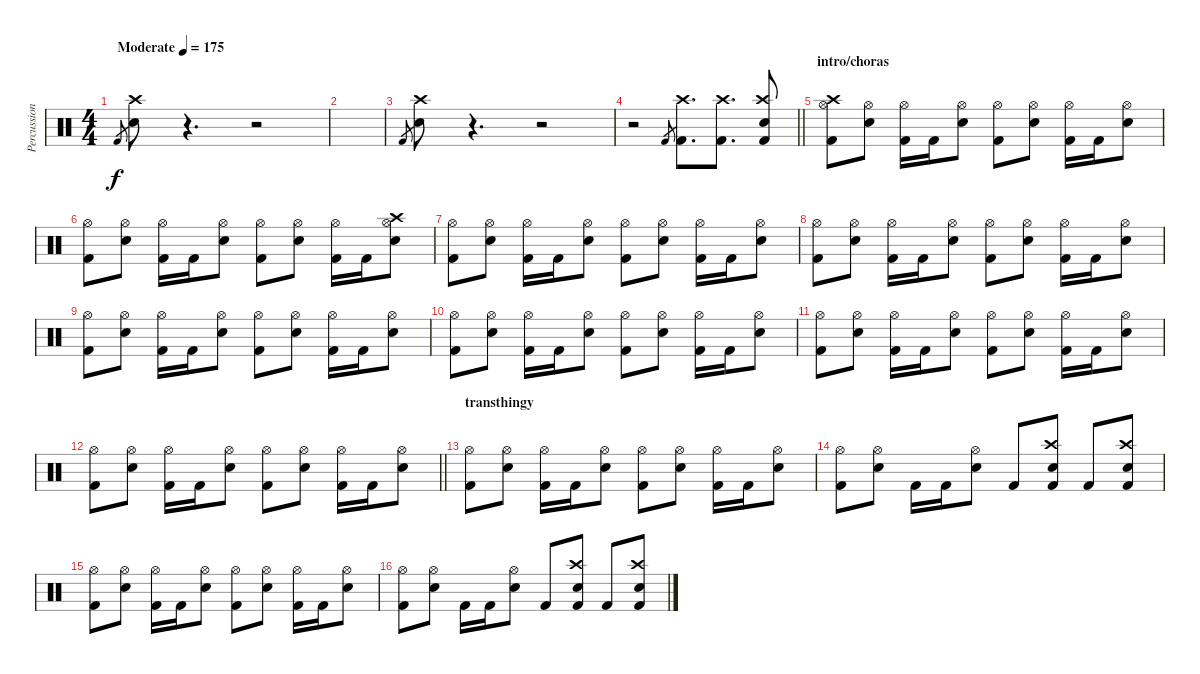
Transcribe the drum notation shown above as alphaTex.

\track ("Percussion" "Percussion") {instrument percussion}
\staff {score}
\articulation defaults
\ts (4 4)
\tempo (175 "Moderate")
\clef neutral
\ks c "Kick (hit) 2".8{gr dy f}
("Crash high (hit)" "Electric Snare (hit)").8 r.4{d} r.2 |
|
"Kick (hit) 2".8{gr} ("Crash high (hit)" "Electric Snare (hit)").8 r.4{d} r.2 |
\barLineRight lightlight
r.2 "Kick (hit) 2".8{gr} ("Crash high (hit)" "Kick (hit) 2").8{d} ("Crash high (hit)" "Kick (hit) 2").8{d} ("Crash high (hit)" "Electric Snare (hit)" "Kick (hit) 2").8 |
\section ("" "intro/choras")
("Crash high (hit)" "Hi-Hat (open)" "Kick (hit) 2").8 ("Hi-Hat (open)" "Electric Snare (hit)").8 ("Hi-Hat (open)" "Kick (hit) 2").16 "Kick (hit) 2".16 ("Hi-Hat (open)" "Electric Snare (hit)").8 ("Hi-Hat (open)" "Kick (hit) 2").8 ("Hi-Hat (open)" "Electric Snare (hit)").8 ("Hi-Hat (open)" "Kick (hit) 2").16 "Kick (hit) 2".16 ("Hi-Hat (open)" "Electric Snare (hit)").8 |
("Hi-Hat (open)" "Kick (hit) 2").8 ("Hi-Hat (open)" "Electric Snare (hit)").8 ("Hi-Hat (open)" "Kick (hit) 2").16 "Kick (hit) 2".16 ("Hi-Hat (open)" "Electric Snare (hit)").8 ("Hi-Hat (open)" "Kick (hit) 2").8 ("Hi-Hat (open)" "Electric Snare (hit)").8 ("Hi-Hat (open)" "Kick (hit) 2").16 "Kick (hit) 2".16 ("Crash high (hit)" "Hi-Hat (open)" "Electric Snare (hit)").8 |
("Hi-Hat (open)" "Kick (hit) 2").8 ("Hi-Hat (open)" "Electric Snare (hit)").8 ("Hi-Hat (open)" "Kick (hit) 2").16 "Kick (hit) 2".16 ("Hi-Hat (open)" "Electric Snare (hit)").8 ("Hi-Hat (open)" "Kick (hit) 2").8 ("Hi-Hat (open)" "Electric Snare (hit)").8 ("Hi-Hat (open)" "Kick (hit) 2").16 "Kick (hit) 2".16 ("Hi-Hat (open)" "Electric Snare (hit)").8 |
("Hi-Hat (open)" "Kick (hit) 2").8 ("Hi-Hat (open)" "Electric Snare (hit)").8 ("Hi-Hat (open)" "Kick (hit) 2").16 "Kick (hit) 2".16 ("Hi-Hat (open)" "Electric Snare (hit)").8 ("Hi-Hat (open)" "Kick (hit) 2").8 ("Hi-Hat (open)" "Electric Snare (hit)").8 ("Hi-Hat (open)" "Kick (hit) 2").16 "Kick (hit) 2".16 ("Hi-Hat (open)" "Electric Snare (hit)").8 |
("Hi-Hat (open)" "Kick (hit) 2").8 ("Hi-Hat (open)" "Electric Snare (hit)").8 ("Hi-Hat (open)" "Kick (hit) 2").16 "Kick (hit) 2".16 ("Hi-Hat (open)" "Electric Snare (hit)").8 ("Hi-Hat (open)" "Kick (hit) 2").8 ("Hi-Hat (open)" "Electric Snare (hit)").8 ("Hi-Hat (open)" "Kick (hit) 2").16 "Kick (hit) 2".16 ("Hi-Hat (open)" "Electric Snare (hit)").8 |
("Hi-Hat (open)" "Kick (hit) 2").8 ("Hi-Hat (open)" "Electric Snare (hit)").8 ("Hi-Hat (open)" "Kick (hit) 2").16 "Kick (hit) 2".16 ("Hi-Hat (open)" "Electric Snare (hit)").8 ("Hi-Hat (open)" "Kick (hit) 2").8 ("Hi-Hat (open)" "Electric Snare (hit)").8 ("Hi-Hat (open)" "Kick (hit) 2").16 "Kick (hit) 2".16 ("Hi-Hat (open)" "Electric Snare (hit)").8 |
("Hi-Hat (open)" "Kick (hit) 2").8 ("Hi-Hat (open)" "Electric Snare (hit)").8 ("Hi-Hat (open)" "Kick (hit) 2").16 "Kick (hit) 2".16 ("Hi-Hat (open)" "Electric Snare (hit)").8 ("Hi-Hat (open)" "Kick (hit) 2").8 ("Hi-Hat (open)" "Electric Snare (hit)").8 ("Hi-Hat (open)" "Kick (hit) 2").16 "Kick (hit) 2".16 ("Hi-Hat (open)" "Electric Snare (hit)").8 |
\barLineRight lightlight
("Hi-Hat (open)" "Kick (hit) 2").8 ("Hi-Hat (open)" "Electric Snare (hit)").8 ("Hi-Hat (open)" "Kick (hit) 2").16 "Kick (hit) 2".16 ("Hi-Hat (open)" "Electric Snare (hit)").8 ("Hi-Hat (open)" "Kick (hit) 2").8 ("Hi-Hat (open)" "Electric Snare (hit)").8 ("Hi-Hat (open)" "Kick (hit) 2").16 "Kick (hit) 2".16 ("Hi-Hat (open)" "Electric Snare (hit)").8 |
\section ("" "transthingy")
("Hi-Hat (open)" "Kick (hit) 2").8 ("Hi-Hat (open)" "Electric Snare (hit)").8 ("Hi-Hat (open)" "Kick (hit) 2").16 "Kick (hit) 2".16 ("Hi-Hat (open)" "Electric Snare (hit)").8 ("Hi-Hat (open)" "Kick (hit) 2").8 ("Hi-Hat (open)" "Electric Snare (hit)").8 ("Hi-Hat (open)" "Kick (hit) 2").16 "Kick (hit) 2".16 ("Hi-Hat (open)" "Electric Snare (hit)").8 |
("Hi-Hat (open)" "Kick (hit) 2").8 ("Hi-Hat (open)" "Electric Snare (hit)").8 "Kick (hit) 2".16 "Kick (hit) 2".16 ("Hi-Hat (open)" "Electric Snare (hit)").8 "Kick (hit) 2".8 ("Crash high (hit)" "Electric Snare (hit)" "Kick (hit) 2").8 "Kick (hit) 2".8 ("Crash high (hit)" "Electric Snare (hit)" "Kick (hit) 2").8 |
("Hi-Hat (open)" "Kick (hit) 2").8 ("Hi-Hat (open)" "Electric Snare (hit)").8 ("Hi-Hat (open)" "Kick (hit) 2").16 "Kick (hit) 2".16 ("Hi-Hat (open)" "Electric Snare (hit)").8 ("Hi-Hat (open)" "Kick (hit) 2").8 ("Hi-Hat (open)" "Electric Snare (hit)").8 ("Hi-Hat (open)" "Kick (hit) 2").16 "Kick (hit) 2".16 ("Hi-Hat (open)" "Electric Snare (hit)").8 |
("Hi-Hat (open)" "Kick (hit) 2").8 ("Hi-Hat (open)" "Electric Snare (hit)").8 "Kick (hit) 2".16 "Kick (hit) 2".16 ("Hi-Hat (open)" "Electric Snare (hit)").8 "Kick (hit) 2".8 ("Crash high (hit)" "Electric Snare (hit)" "Kick (hit) 2").8 "Kick (hit) 2".8 ("Crash high (hit)" "Electric Snare (hit)" "Kick (hit) 2").8
